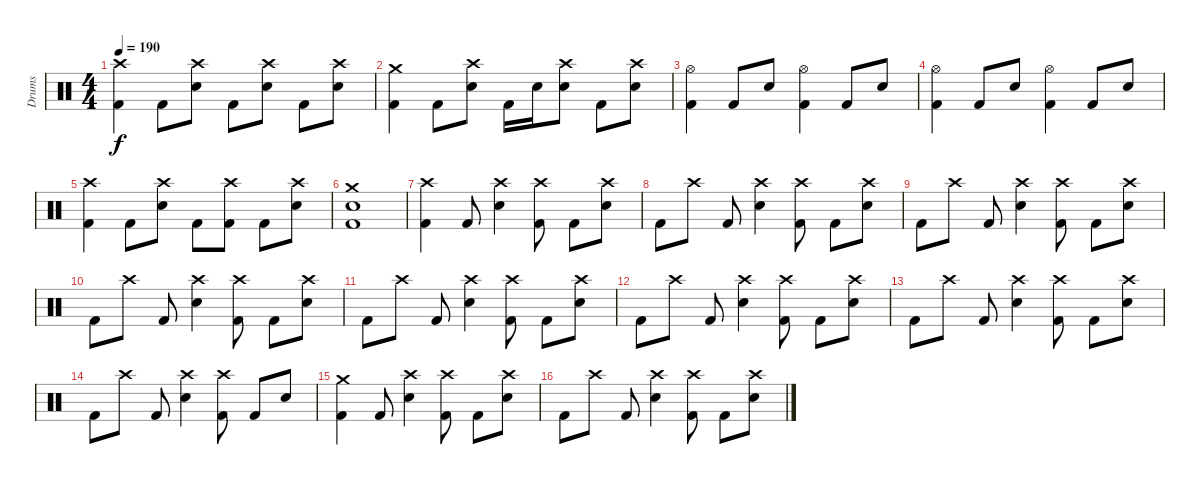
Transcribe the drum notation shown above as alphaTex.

\track ("Drums" "Drums") {instrument percussion}
\staff {score}
\articulation defaults
\ts (4 4)
\tempo 190
\clef neutral
\ks c
("Crash high (hit)" "Kick (hit) 2").4{dy f} "Kick (hit) 2".8 ("Crash high (hit)" "Electric Snare (hit)").8 "Kick (hit) 2".8 ("Crash high (hit)" "Electric Snare (hit)").8 "Kick (hit) 2".8 ("Crash high (hit)" "Electric Snare (hit)").8 |
("Crash medium (hit)" "Kick (hit) 2").4 "Kick (hit) 2".8 ("Crash high (hit)" "Electric Snare (hit)").8 "Kick (hit) 2".16 "Snare (hit) 2".16 ("Crash high (hit)" "Electric Snare (hit)").8 "Kick (hit) 2".8 ("Crash high (hit)" "Electric Snare (hit)").8 |
("Hi-Hat (open)" "Kick (hit) 2").4 "Kick (hit) 2".8 "Electric Snare (hit)".8 ("Hi-Hat (open)" "Kick (hit) 2").4 "Kick (hit) 2".8 "Electric Snare (hit)".8 |
("Hi-Hat (open)" "Kick (hit) 2").4 "Kick (hit) 2".8 "Electric Snare (hit)".8 ("Hi-Hat (open)" "Kick (hit) 2").4 "Kick (hit) 2".8 "Electric Snare (hit)".8 |
("Crash high (hit)" "Kick (hit) 2").4 "Kick (hit) 2".8 ("Crash high (hit)" "Electric Snare (hit)").8 "Kick (hit) 2".8 ("Crash high (hit)" "Kick (hit) 2").8 "Kick (hit) 2".8 ("Crash high (hit)" "Electric Snare (hit)").8 |
("Crash medium (hit)" "Electric Snare (hit)" "Kick (hit) 2").1 |
("Crash high (hit)" "Kick (hit) 2").4 "Kick (hit) 2".8 ("Crash high (hit)" "Electric Snare (hit)").4 ("Crash high (hit)" "Kick (hit) 2").8 "Kick (hit) 2".8 ("Crash high (hit)" "Electric Snare (hit)").8 |
"Kick (hit) 2".8 "Crash high (hit)".8 "Kick (hit) 2".8 ("Crash high (hit)" "Electric Snare (hit)").4 ("Crash high (hit)" "Kick (hit) 2").8 "Kick (hit) 2".8 ("Crash high (hit)" "Electric Snare (hit)").8 |
"Kick (hit) 2".8 "Crash high (hit)".8 "Kick (hit) 2".8 ("Crash high (hit)" "Electric Snare (hit)").4 ("Crash high (hit)" "Kick (hit) 2").8 "Kick (hit) 2".8 ("Crash high (hit)" "Electric Snare (hit)").8 |
"Kick (hit) 2".8 "Crash high (hit)".8 "Kick (hit) 2".8 ("Crash high (hit)" "Electric Snare (hit)").4 ("Crash high (hit)" "Kick (hit) 2").8 "Kick (hit) 2".8 ("Crash high (hit)" "Electric Snare (hit)").8 |
"Kick (hit) 2".8 "Crash high (hit)".8 "Kick (hit) 2".8 ("Crash high (hit)" "Electric Snare (hit)").4 ("Crash high (hit)" "Kick (hit) 2").8 "Kick (hit) 2".8 ("Crash high (hit)" "Electric Snare (hit)").8 |
"Kick (hit) 2".8 "Crash high (hit)".8 "Kick (hit) 2".8 ("Crash high (hit)" "Electric Snare (hit)").4 ("Crash high (hit)" "Kick (hit) 2").8 "Kick (hit) 2".8 ("Crash high (hit)" "Electric Snare (hit)").8 |
"Kick (hit) 2".8 "Crash high (hit)".8 "Kick (hit) 2".8 ("Crash high (hit)" "Electric Snare (hit)").4 ("Crash high (hit)" "Kick (hit) 2").8 "Kick (hit) 2".8 ("Crash high (hit)" "Electric Snare (hit)").8 |
"Kick (hit) 2".8 "Crash high (hit)".8 "Kick (hit) 2".8 ("Crash high (hit)" "Electric Snare (hit)").4 ("Crash high (hit)" "Kick (hit) 2").8 "Kick (hit) 2".8 "Electric Snare (hit)".8 |
("Crash medium (hit)" "Kick (hit) 2").4 "Kick (hit) 2".8 ("Crash high (hit)" "Electric Snare (hit)").4 ("Crash high (hit)" "Kick (hit) 2").8 "Kick (hit) 2".8 ("Crash high (hit)" "Electric Snare (hit)").8 |
"Kick (hit) 2".8 "Crash high (hit)".8 "Kick (hit) 2".8 ("Crash high (hit)" "Electric Snare (hit)").4 ("Crash high (hit)" "Kick (hit) 2").8 "Kick (hit) 2".8 ("Crash high (hit)" "Electric Snare (hit)").8
